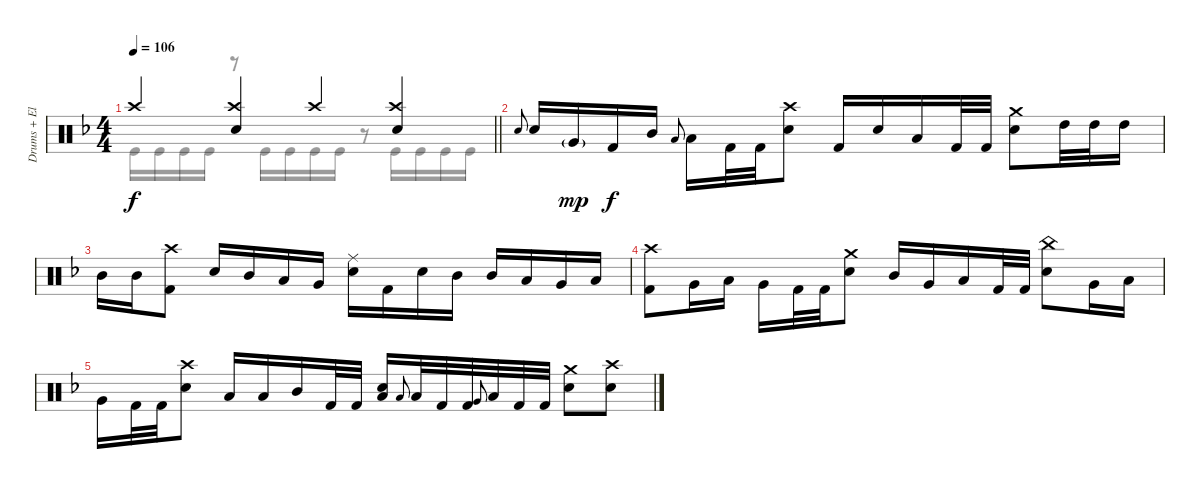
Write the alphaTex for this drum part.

\track ("Drums + Electronic drum pads" "Drums + El") {instrument percussion}
\staff {score}
\articulation defaults
\voice
\ts (4 4)
\tempo 106
\clef neutral
\barLineRight lightlight
\ks dminor "Crash high (hit)".4{dy f}
("Crash high (hit)" "Snare (hit) 2").4 "Crash high (hit)".4 ("Crash high (hit)" "Snare (hit) 2").4 |
"Snare (hit) 2".8{gr onbeat} "Snare (hit) 2".16 "Very Low Tom (hit)"{g}.16{dy mp} "Kick (hit) 2".16{dy f} "Mid Tom (hit)".16 "Low Tom (hit)".8{gr onbeat} "Low Tom (hit)".16 "Kick (hit) 2".32 "Kick (hit) 2".32 ("Crash high (hit)" "Snare (hit) 2").8 "Kick (hit) 2".16 "Snare (hit) 2".16 "Low Tom (hit)".16 "Kick (hit) 2".32 "Kick (hit) 2".32 ("Crash medium (hit)" "Snare (hit) 2").8 "High Tom (hit)".32 "High Tom (hit)".32 "High Tom (hit)".16 |
"Mid Tom (hit)".16 "Mid Tom (hit)".16 ("Crash high (hit)" "Kick (hit) 2").8 "Snare (hit) 2".16 "Mid Tom (hit)".16 "Low Tom (hit)".16 "Very Low Tom (hit)".16 ("Ride (middle)" "Snare (hit) 2").16 "Kick (hit) 2".16 "Snare (hit) 2".16 "Mid Tom (hit)".16 "Mid Tom (hit)".16 "Low Tom (hit)".16 "Very Low Tom (hit)".16 "Low Floor Tom (hit)".16 |
("Crash high (hit)" "Kick (hit) 2").8 "Very Low Tom (hit)".16 "Low Floor Tom (hit)".16 "Very Low Tom (hit)".16 "Kick (hit) 2".32 "Kick (hit) 2".32 ("Crash medium (hit)" "Snare (hit) 2").8 "Mid Tom (hit)".16 "Very Low Tom (hit)".16 "Low Tom (hit)".16 "Kick (hit) 2".32 "Kick (hit) 2".32 ("China (hit)" "Snare (hit) 2").8 "Very Low Tom (hit)".16 "Low Floor Tom (hit)".16 |
"Very Low Tom (hit)".16 "Kick (hit) 2".32 "Kick (hit) 2".32 ("Crash high (hit)" "Snare (hit) 2").8 "Low Tom (hit)".16 "Low Floor Tom (hit)".16 "Mid Tom (hit)".16 "Kick (hit) 2".32 "Kick (hit) 2".32 ("Snare (hit) 2" "Low Floor Tom (hit)").16 "Low Floor Tom (hit)".8{gr onbeat} "Low Floor Tom (hit)".32 "Kick (hit) 2".32 "Kick (hit) 2".32 "Very Low Tom (hit)".8{gr onbeat} "Low Floor Tom (hit)".32 "Kick (hit) 2".32 "Kick (hit) 2".32 ("Crash medium (hit)" "Snare (hit) 2").8 ("Crash high (hit)" "Snare (hit) 2").8
\voice
\clef neutral
\ottava regular
\simile none
\barLineRight lightlight
\ks dminor "Kick (hit)".16{dy f} "Kick (hit)".16 "Kick (hit)".16 "Kick (hit)".16
r.8 "Kick (hit)".16 "Kick (hit)".16{beam merge} "Kick (hit)".16 "Kick (hit)".16 r.8{beam split} "Kick (hit)".16 "Kick (hit)".16{beam merge} "Kick (hit)".16 "Kick (hit)".16 |
|
|
|
